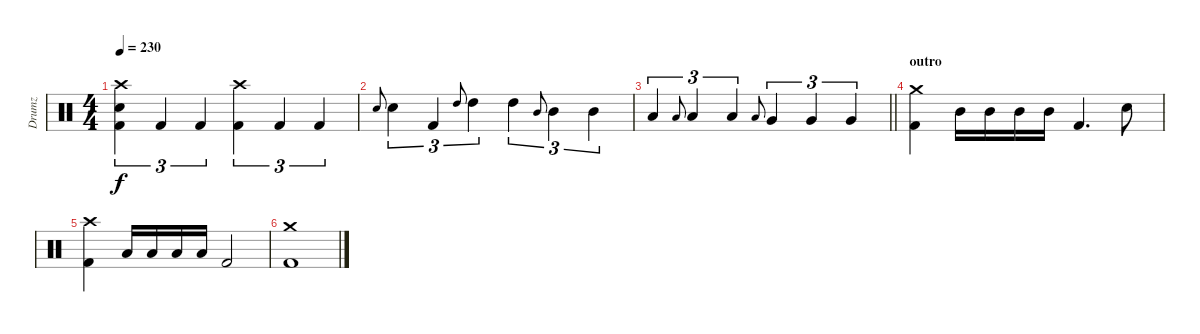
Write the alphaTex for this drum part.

\track ("Drumz" "Drumz") {instrument percussion}
\staff {score}
\articulation defaults
\ts (4 4)
\tempo 230
\clef neutral
\ks c
("Crash high (hit)" "Electric Snare (hit)" "Kick (hit) 2").4{tu (3 2) dy f} "Kick (hit) 2".4{tu (3 2)} "Kick (hit) 2".4{tu (3 2)} ("Crash high (hit)" "Kick (hit) 2").4{tu (3 2)} "Kick (hit) 2".4{tu (3 2)} "Kick (hit) 2".4{tu (3 2)} |
"Electric Snare (hit)".8{gr onbeat} "Electric Snare (hit)".4{tu (3 2)} "Kick (hit) 2".4{tu (3 2)} "High Tom (hit)".8{gr onbeat} "High Tom (hit)".4{tu (3 2)} "High Tom (hit)".4{tu (3 2)} "Mid Tom (hit)".8{gr onbeat} "Mid Tom (hit)".4{tu (3 2)} "Mid Tom (hit)".4{tu (3 2)} |
\barLineRight lightlight "Low Tom (hit)".4{tu (3 2)} "Low Tom (hit)".8{gr onbeat} "Low Tom (hit)".4{tu (3 2)} "Low Tom (hit)".4{tu (3 2)} "Low Tom (hit)".8{gr onbeat} "Very Low Tom (hit)".4{tu (3 2)} "Very Low Tom (hit)".4{tu (3 2)} "Very Low Tom (hit)".4{tu (3 2)}
|
\section ("" "outro")
("Crash medium (hit)" "Kick (hit) 2").4 "Mid Tom (hit)".16 "Mid Tom (hit)".16 "Mid Tom (hit)".16 "Mid Tom (hit)".16 "Kick (hit) 2".4{d} "Electric Snare (hit)".8 |
("Crash high (hit)" "Kick (hit) 2").4 "Low Tom (hit)".16 "Low Tom (hit)".16 "Low Tom (hit)".16 "Low Tom (hit)".16 "Kick (hit) 2".2 |
("Crash medium (hit)" "Kick (hit) 2").1
